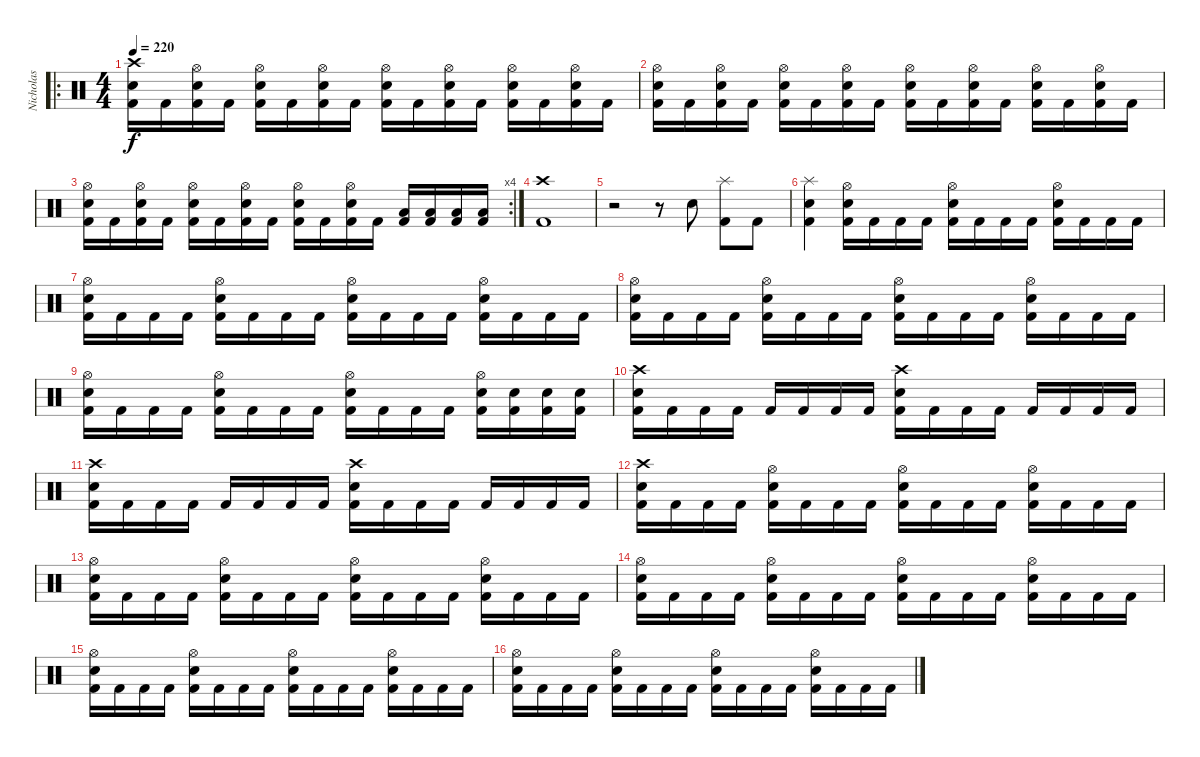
\track ("Nicholas" "Nicholas") {instrument percussion}
\staff {score}
\articulation defaults
\ro
\ts (4 4)
\tempo 220
\clef neutral
\ks c
("Kick (hit) 2" "Snare (hit) 2" "Crash high (hit)").16{dy f} "Kick (hit) 2".16 ("Kick (hit) 2" "Snare (hit) 2" "Hi-Hat (open)").16 "Kick (hit) 2".16 ("Kick (hit) 2" "Snare (hit) 2" "Hi-Hat (open)").16 "Kick (hit) 2".16 ("Kick (hit) 2" "Snare (hit) 2" "Hi-Hat (open)").16 "Kick (hit) 2".16 ("Kick (hit) 2" "Snare (hit) 2" "Hi-Hat (open)").16 "Kick (hit) 2".16 ("Kick (hit) 2" "Snare (hit) 2" "Hi-Hat (open)").16 "Kick (hit) 2".16 ("Kick (hit) 2" "Snare (hit) 2" "Hi-Hat (open)").16 "Kick (hit) 2".16 ("Kick (hit) 2" "Snare (hit) 2" "Hi-Hat (open)").16 "Kick (hit) 2".16 |
("Kick (hit) 2" "Snare (hit) 2" "Hi-Hat (open)").16 "Kick (hit) 2".16 ("Kick (hit) 2" "Snare (hit) 2" "Hi-Hat (open)").16 "Kick (hit) 2".16 ("Kick (hit) 2" "Snare (hit) 2" "Hi-Hat (open)").16 "Kick (hit) 2".16 ("Kick (hit) 2" "Snare (hit) 2" "Hi-Hat (open)").16 "Kick (hit) 2".16 ("Kick (hit) 2" "Snare (hit) 2" "Hi-Hat (open)").16 "Kick (hit) 2".16 ("Kick (hit) 2" "Snare (hit) 2" "Hi-Hat (open)").16 "Kick (hit) 2".16 ("Kick (hit) 2" "Snare (hit) 2" "Hi-Hat (open)").16 "Kick (hit) 2".16 ("Kick (hit) 2" "Snare (hit) 2" "Hi-Hat (open)").16 "Kick (hit) 2".16 |
\rc 4
("Kick (hit) 2" "Snare (hit) 2" "Hi-Hat (open)").16 "Kick (hit) 2".16 ("Kick (hit) 2" "Snare (hit) 2" "Hi-Hat (open)").16 "Kick (hit) 2".16 ("Kick (hit) 2" "Snare (hit) 2" "Hi-Hat (open)").16 "Kick (hit) 2".16 ("Kick (hit) 2" "Snare (hit) 2" "Hi-Hat (open)").16 "Kick (hit) 2".16 ("Kick (hit) 2" "Snare (hit) 2" "Hi-Hat (open)").16 "Kick (hit) 2".16 ("Kick (hit) 2" "Snare (hit) 2" "Hi-Hat (open)").16 "Kick (hit) 2".16 ("Kick (hit) 2" "Low Tom (hit)").16 ("Kick (hit) 2" "Low Tom (hit)").16 ("Kick (hit) 2" "Low Tom (hit)").16 ("Kick (hit) 2" "Low Tom (hit)").16 |
("Kick (hit) 2" "Crash high (hit)").1 |
r.2 r.8 "Snare (hit) 2".8 ("Kick (hit) 2" "Splash (hit)").8 "Kick (hit) 2".8 |
("Kick (hit) 2" "Snare (hit) 2" "Splash (hit)").4 ("Kick (hit) 2" "Snare (hit) 2" "Hi-Hat (open)").16 "Kick (hit) 2".16 "Kick (hit) 2".16 "Kick (hit) 2".16 ("Kick (hit) 2" "Snare (hit) 2" "Hi-Hat (open)").16 "Kick (hit) 2".16 "Kick (hit) 2".16 "Kick (hit) 2".16 ("Kick (hit) 2" "Snare (hit) 2" "Hi-Hat (open)").16 "Kick (hit) 2".16 "Kick (hit) 2".16 "Kick (hit) 2".16 |
("Kick (hit) 2" "Snare (hit) 2" "Hi-Hat (open)").16 "Kick (hit) 2".16 "Kick (hit) 2".16 "Kick (hit) 2".16 ("Kick (hit) 2" "Snare (hit) 2" "Hi-Hat (open)").16 "Kick (hit) 2".16 "Kick (hit) 2".16 "Kick (hit) 2".16 ("Kick (hit) 2" "Snare (hit) 2" "Hi-Hat (open)").16 "Kick (hit) 2".16 "Kick (hit) 2".16 "Kick (hit) 2".16 ("Kick (hit) 2" "Snare (hit) 2" "Hi-Hat (open)").16 "Kick (hit) 2".16 "Kick (hit) 2".16 "Kick (hit) 2".16 |
("Kick (hit) 2" "Snare (hit) 2" "Hi-Hat (open)").16 "Kick (hit) 2".16 "Kick (hit) 2".16 "Kick (hit) 2".16 ("Kick (hit) 2" "Snare (hit) 2" "Hi-Hat (open)").16 "Kick (hit) 2".16 "Kick (hit) 2".16 "Kick (hit) 2".16 ("Kick (hit) 2" "Snare (hit) 2" "Hi-Hat (open)").16 "Kick (hit) 2".16 "Kick (hit) 2".16 "Kick (hit) 2".16 ("Kick (hit) 2" "Snare (hit) 2" "Hi-Hat (open)").16 "Kick (hit) 2".16 "Kick (hit) 2".16 "Kick (hit) 2".16 |
("Kick (hit) 2" "Snare (hit) 2" "Hi-Hat (open)").16 "Kick (hit) 2".16 "Kick (hit) 2".16 "Kick (hit) 2".16 ("Kick (hit) 2" "Snare (hit) 2" "Hi-Hat (open)").16 "Kick (hit) 2".16 "Kick (hit) 2".16 "Kick (hit) 2".16 ("Kick (hit) 2" "Snare (hit) 2" "Hi-Hat (open)").16 "Kick (hit) 2".16 "Kick (hit) 2".16 "Kick (hit) 2".16 ("Kick (hit) 2" "Snare (hit) 2" "Hi-Hat (open)").16 ("Kick (hit) 2" "Snare (hit) 2").16 ("Kick (hit) 2" "Snare (hit) 2").16 ("Kick (hit) 2" "Snare (hit) 2").16 |
("Kick (hit) 2" "Snare (hit) 2" "Crash high (hit)").16 "Kick (hit) 2".16 "Kick (hit) 2".16 "Kick (hit) 2".16 "Kick (hit) 2".16 "Kick (hit) 2".16 "Kick (hit) 2".16 "Kick (hit) 2".16 ("Kick (hit) 2" "Snare (hit) 2" "Crash high (hit)").16 "Kick (hit) 2".16 "Kick (hit) 2".16 "Kick (hit) 2".16 "Kick (hit) 2".16 "Kick (hit) 2".16 "Kick (hit) 2".16 "Kick (hit) 2".16 |
("Kick (hit) 2" "Snare (hit) 2" "Crash high (hit)").16 "Kick (hit) 2".16 "Kick (hit) 2".16 "Kick (hit) 2".16 "Kick (hit) 2".16 "Kick (hit) 2".16 "Kick (hit) 2".16 "Kick (hit) 2".16 ("Kick (hit) 2" "Snare (hit) 2" "Crash high (hit)").16 "Kick (hit) 2".16 "Kick (hit) 2".16 "Kick (hit) 2".16 "Kick (hit) 2".16 "Kick (hit) 2".16 "Kick (hit) 2".16 "Kick (hit) 2".16 |
("Kick (hit) 2" "Snare (hit) 2" "Crash high (hit)").16 "Kick (hit) 2".16 "Kick (hit) 2".16 "Kick (hit) 2".16 ("Kick (hit) 2" "Snare (hit) 2" "Hi-Hat (open)").16 "Kick (hit) 2".16 "Kick (hit) 2".16 "Kick (hit) 2".16 ("Kick (hit) 2" "Snare (hit) 2" "Hi-Hat (open)").16 "Kick (hit) 2".16 "Kick (hit) 2".16 "Kick (hit) 2".16 ("Kick (hit) 2" "Snare (hit) 2" "Hi-Hat (open)").16 "Kick (hit) 2".16 "Kick (hit) 2".16 "Kick (hit) 2".16 |
("Kick (hit) 2" "Snare (hit) 2" "Hi-Hat (open)").16 "Kick (hit) 2".16 "Kick (hit) 2".16 "Kick (hit) 2".16 ("Kick (hit) 2" "Snare (hit) 2" "Hi-Hat (open)").16 "Kick (hit) 2".16 "Kick (hit) 2".16 "Kick (hit) 2".16 ("Kick (hit) 2" "Snare (hit) 2" "Hi-Hat (open)").16 "Kick (hit) 2".16 "Kick (hit) 2".16 "Kick (hit) 2".16 ("Kick (hit) 2" "Snare (hit) 2" "Hi-Hat (open)").16 "Kick (hit) 2".16 "Kick (hit) 2".16 "Kick (hit) 2".16 |
("Kick (hit) 2" "Snare (hit) 2" "Hi-Hat (open)").16 "Kick (hit) 2".16 "Kick (hit) 2".16 "Kick (hit) 2".16 ("Kick (hit) 2" "Snare (hit) 2" "Hi-Hat (open)").16 "Kick (hit) 2".16 "Kick (hit) 2".16 "Kick (hit) 2".16 ("Kick (hit) 2" "Snare (hit) 2" "Hi-Hat (open)").16 "Kick (hit) 2".16 "Kick (hit) 2".16 "Kick (hit) 2".16 ("Kick (hit) 2" "Snare (hit) 2" "Hi-Hat (open)").16 "Kick (hit) 2".16 "Kick (hit) 2".16 "Kick (hit) 2".16 |
("Kick (hit) 2" "Snare (hit) 2" "Hi-Hat (open)").16 "Kick (hit) 2".16 "Kick (hit) 2".16 "Kick (hit) 2".16 ("Kick (hit) 2" "Snare (hit) 2" "Hi-Hat (open)").16 "Kick (hit) 2".16 "Kick (hit) 2".16 "Kick (hit) 2".16 ("Kick (hit) 2" "Snare (hit) 2" "Hi-Hat (open)").16 "Kick (hit) 2".16 "Kick (hit) 2".16 "Kick (hit) 2".16 ("Kick (hit) 2" "Snare (hit) 2" "Hi-Hat (open)").16 "Kick (hit) 2".16 "Kick (hit) 2".16 "Kick (hit) 2".16 |
("Kick (hit) 2" "Snare (hit) 2" "Hi-Hat (open)").16 "Kick (hit) 2".16 "Kick (hit) 2".16 "Kick (hit) 2".16 ("Kick (hit) 2" "Snare (hit) 2" "Hi-Hat (open)").16 "Kick (hit) 2".16 "Kick (hit) 2".16 "Kick (hit) 2".16 ("Kick (hit) 2" "Snare (hit) 2" "Hi-Hat (open)").16 "Kick (hit) 2".16 "Kick (hit) 2".16 "Kick (hit) 2".16 ("Kick (hit) 2" "Snare (hit) 2" "Hi-Hat (open)").16 "Kick (hit) 2".16 "Kick (hit) 2".16 "Kick (hit) 2".16
